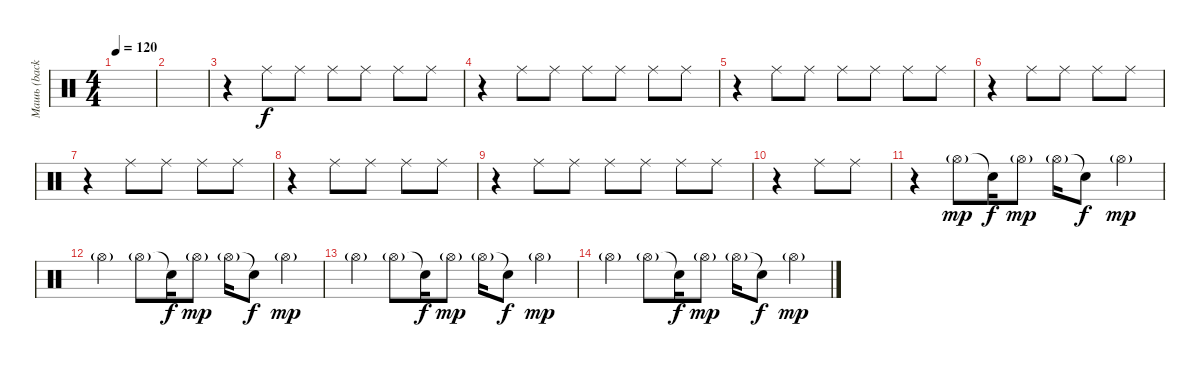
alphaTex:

\track ("Машь (backpercussion)" "Машь (back") {instrument percussion}
\staff {score}
\articulation defaults
\ts (4 4)
\tempo 120
\clef neutral
\ks c
|
|
r.4 "Ride (middle)".8 "Ride (middle)".8 "Ride (middle)".8 "Ride (middle)".8 "Ride (middle)".8 "Ride (middle)".8 |
r.4 "Ride (middle)".8 "Ride (middle)".8 "Ride (middle)".8 "Ride (middle)".8 "Ride (middle)".8 "Ride (middle)".8 |
r.4 "Ride (middle)".8 "Ride (middle)".8 "Ride (middle)".8 "Ride (middle)".8 "Ride (middle)".8 "Ride (middle)".8 |
r.4 "Ride (middle)".8 "Ride (middle)".8 "Ride (middle)".8 "Ride (middle)".8 |
r.4 "Ride (middle)".8 "Ride (middle)".8 "Ride (middle)".8 "Ride (middle)".8 |
r.4 "Ride (middle)".8 "Ride (middle)".8 "Ride (middle)".8 "Ride (middle)".8 |
r.4 "Ride (middle)".8 "Ride (middle)".8 "Ride (middle)".8 "Ride (middle)".8 "Ride (middle)".8 "Ride (middle)".8 |
r.4 "Ride (middle)".8 "Ride (middle)".8 |
r.4 "Hi-Hat (open)"{g}.8{dy mp} "Snare (hit)"{t}.16{dy f} "Hi-Hat (open)"{g}.8{dy mp} "Hi-Hat (open)"{g}.16 "Snare (hit)"{t}.8{dy f} "Hi-Hat (open)"{g}.4{dy mp} |
"Hi-Hat (open)"{g}.4 "Hi-Hat (open)"{g}.8 "Snare (hit)"{t}.16{dy f} "Hi-Hat (open)"{g}.8{dy mp} "Hi-Hat (open)"{g}.16 "Snare (hit)"{t}.8{dy f} "Hi-Hat (open)"{g}.4{dy mp} |
"Hi-Hat (open)"{g}.4 "Hi-Hat (open)"{g}.8 "Snare (hit)"{t}.16{dy f} "Hi-Hat (open)"{g}.8{dy mp} "Hi-Hat (open)"{g}.16 "Snare (hit)"{t}.8{dy f} "Hi-Hat (open)"{g}.4{dy mp} |
"Hi-Hat (open)"{g}.4 "Hi-Hat (open)"{g}.8 "Snare (hit)"{t}.16{dy f} "Hi-Hat (open)"{g}.8{dy mp} "Hi-Hat (open)"{g}.16 "Snare (hit)"{t}.8{dy f} "Hi-Hat (open)"{g}.4{dy mp}
